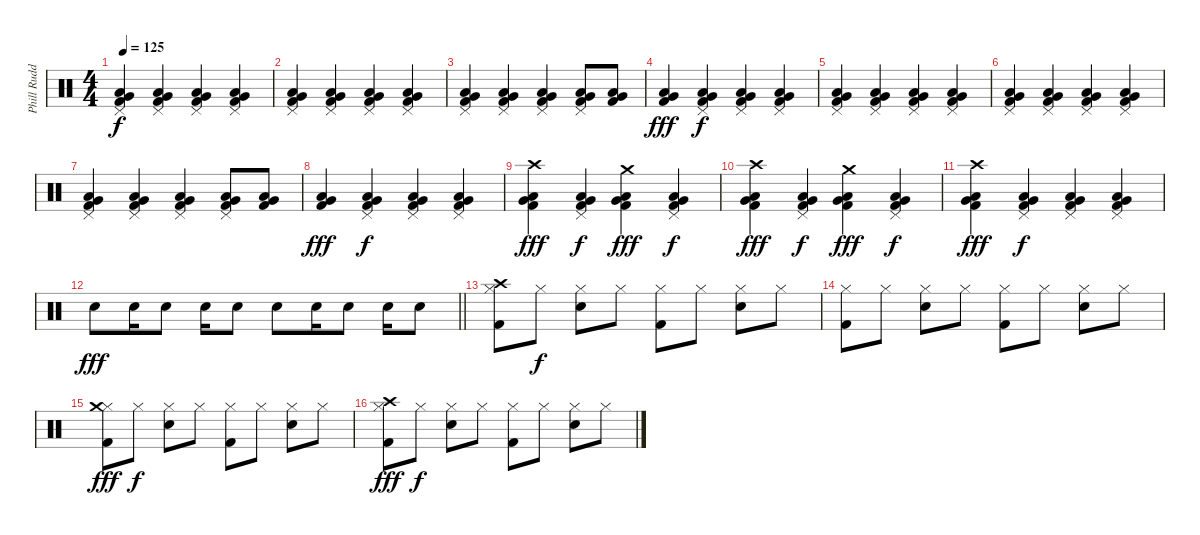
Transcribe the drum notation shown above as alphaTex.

\track ("Phill Rudd" "Phill Rudd") {instrument percussion}
\staff {score}
\articulation defaults
\ts (4 4)
\tempo 125
\clef neutral
\ks c
("Kick (hit) 2" "Very Low Tom (hit)" "Low Floor Tom (hit)" "Pedal Hi-Hat (hit)").4{dy f} ("Kick (hit) 2" "Very Low Tom (hit)" "Low Floor Tom (hit)" "Pedal Hi-Hat (hit)").4 ("Kick (hit) 2" "Very Low Tom (hit)" "Low Floor Tom (hit)" "Pedal Hi-Hat (hit)").4 ("Kick (hit) 2" "Very Low Tom (hit)" "Low Floor Tom (hit)" "Pedal Hi-Hat (hit)").4 |
("Kick (hit) 2" "Very Low Tom (hit)" "Low Floor Tom (hit)" "Pedal Hi-Hat (hit)").4 ("Kick (hit) 2" "Very Low Tom (hit)" "Low Floor Tom (hit)" "Pedal Hi-Hat (hit)").4 ("Kick (hit) 2" "Very Low Tom (hit)" "Low Floor Tom (hit)" "Pedal Hi-Hat (hit)").4 ("Kick (hit) 2" "Very Low Tom (hit)" "Low Floor Tom (hit)" "Pedal Hi-Hat (hit)").4 |
("Kick (hit) 2" "Very Low Tom (hit)" "Low Floor Tom (hit)" "Pedal Hi-Hat (hit)").4 ("Kick (hit) 2" "Very Low Tom (hit)" "Low Floor Tom (hit)" "Pedal Hi-Hat (hit)").4 ("Kick (hit) 2" "Very Low Tom (hit)" "Low Floor Tom (hit)" "Pedal Hi-Hat (hit)").4 ("Kick (hit) 2" "Very Low Tom (hit)" "Low Floor Tom (hit)" "Pedal Hi-Hat (hit)").8 ("Kick (hit) 2" "Very Low Tom (hit)" "Low Floor Tom (hit)").8 |
("Kick (hit) 2" "Very Low Tom (hit)" "Low Floor Tom (hit)").4{dy fff} ("Kick (hit) 2" "Very Low Tom (hit)" "Low Floor Tom (hit)" "Pedal Hi-Hat (hit)").4{dy f} ("Kick (hit) 2" "Very Low Tom (hit)" "Low Floor Tom (hit)" "Pedal Hi-Hat (hit)").4 ("Kick (hit) 2" "Very Low Tom (hit)" "Low Floor Tom (hit)" "Pedal Hi-Hat (hit)").4 |
("Kick (hit) 2" "Very Low Tom (hit)" "Low Floor Tom (hit)" "Pedal Hi-Hat (hit)").4 ("Kick (hit) 2" "Very Low Tom (hit)" "Low Floor Tom (hit)" "Pedal Hi-Hat (hit)").4 ("Kick (hit) 2" "Very Low Tom (hit)" "Low Floor Tom (hit)" "Pedal Hi-Hat (hit)").4 ("Kick (hit) 2" "Very Low Tom (hit)" "Low Floor Tom (hit)" "Pedal Hi-Hat (hit)").4 |
("Kick (hit) 2" "Very Low Tom (hit)" "Low Floor Tom (hit)" "Pedal Hi-Hat (hit)").4 ("Kick (hit) 2" "Very Low Tom (hit)" "Low Floor Tom (hit)" "Pedal Hi-Hat (hit)").4 ("Kick (hit) 2" "Very Low Tom (hit)" "Low Floor Tom (hit)" "Pedal Hi-Hat (hit)").4 ("Kick (hit) 2" "Very Low Tom (hit)" "Low Floor Tom (hit)" "Pedal Hi-Hat (hit)").4 |
("Kick (hit) 2" "Very Low Tom (hit)" "Low Floor Tom (hit)" "Pedal Hi-Hat (hit)").4 ("Kick (hit) 2" "Very Low Tom (hit)" "Low Floor Tom (hit)" "Pedal Hi-Hat (hit)").4 ("Kick (hit) 2" "Very Low Tom (hit)" "Low Floor Tom (hit)" "Pedal Hi-Hat (hit)").4 ("Kick (hit) 2" "Very Low Tom (hit)" "Low Floor Tom (hit)" "Pedal Hi-Hat (hit)").8 ("Kick (hit) 2" "Very Low Tom (hit)" "Low Floor Tom (hit)").8 |
("Kick (hit) 2" "Very Low Tom (hit)" "Low Floor Tom (hit)").4{dy fff} ("Kick (hit) 2" "Very Low Tom (hit)" "Low Floor Tom (hit)" "Pedal Hi-Hat (hit)").4{dy f} ("Kick (hit) 2" "Very Low Tom (hit)" "Low Floor Tom (hit)" "Pedal Hi-Hat (hit)").4 ("Kick (hit) 2" "Very Low Tom (hit)" "Low Floor Tom (hit)" "Pedal Hi-Hat (hit)").4 |
("Kick (hit) 2" "Very Low Tom (hit)" "Low Floor Tom (hit)" "Crash high (hit)").4{dy fff} ("Kick (hit) 2" "Very Low Tom (hit)" "Low Floor Tom (hit)" "Pedal Hi-Hat (hit)").4{dy f} ("Kick (hit) 2" "Very Low Tom (hit)" "Low Floor Tom (hit)" "Crash medium (hit)").4{dy fff} ("Kick (hit) 2" "Very Low Tom (hit)" "Low Floor Tom (hit)" "Pedal Hi-Hat (hit)").4{dy f} |
("Kick (hit) 2" "Very Low Tom (hit)" "Low Floor Tom (hit)" "Crash high (hit)").4{dy fff} ("Kick (hit) 2" "Very Low Tom (hit)" "Low Floor Tom (hit)" "Pedal Hi-Hat (hit)").4{dy f} ("Kick (hit) 2" "Very Low Tom (hit)" "Low Floor Tom (hit)" "Crash medium (hit)").4{dy fff} ("Kick (hit) 2" "Very Low Tom (hit)" "Low Floor Tom (hit)" "Pedal Hi-Hat (hit)").4{dy f} |
("Kick (hit) 2" "Very Low Tom (hit)" "Low Floor Tom (hit)" "Crash high (hit)").4{dy fff} ("Kick (hit) 2" "Very Low Tom (hit)" "Low Floor Tom (hit)" "Pedal Hi-Hat (hit)").4{dy f} ("Kick (hit) 2" "Very Low Tom (hit)" "Low Floor Tom (hit)" "Pedal Hi-Hat (hit)").4 ("Kick (hit) 2" "Very Low Tom (hit)" "Low Floor Tom (hit)" "Pedal Hi-Hat (hit)").4 |
\barLineRight lightlight "Electric Snare (hit)".8{dy fff} "Electric Snare (hit)".16 "Electric Snare (hit)".8 "Electric Snare (hit)".16 "Electric Snare (hit)".8 "Electric Snare (hit)".8 "Electric Snare (hit)".16 "Electric Snare (hit)".8 "Electric Snare (hit)".16 "Electric Snare (hit)".8
|
("Hi-Hat (closed)" "Kick (hit) 2" "Crash high (hit)").8 "Hi-Hat (closed)".8{dy f} ("Hi-Hat (closed)" "Electric Snare (hit)").8 "Hi-Hat (closed)".8 ("Hi-Hat (closed)" "Kick (hit) 2").8 "Hi-Hat (closed)".8 ("Hi-Hat (closed)" "Electric Snare (hit)").8 "Hi-Hat (closed)".8 |
("Hi-Hat (closed)" "Kick (hit) 2").8 "Hi-Hat (closed)".8 ("Hi-Hat (closed)" "Electric Snare (hit)").8 "Hi-Hat (closed)".8 ("Hi-Hat (closed)" "Kick (hit) 2").8 "Hi-Hat (closed)".8 ("Hi-Hat (closed)" "Electric Snare (hit)").8 "Hi-Hat (closed)".8 |
("Hi-Hat (closed)" "Kick (hit) 2" "Crash medium (hit)").8{dy fff} "Hi-Hat (closed)".8{dy f} ("Hi-Hat (closed)" "Electric Snare (hit)").8 "Hi-Hat (closed)".8 ("Hi-Hat (closed)" "Kick (hit) 2").8 "Hi-Hat (closed)".8 ("Hi-Hat (closed)" "Electric Snare (hit)").8 "Hi-Hat (closed)".8 |
("Hi-Hat (closed)" "Kick (hit) 2" "Crash high (hit)").8{dy fff} "Hi-Hat (closed)".8{dy f} ("Hi-Hat (closed)" "Electric Snare (hit)").8 "Hi-Hat (closed)".8 ("Hi-Hat (closed)" "Kick (hit) 2").8 "Hi-Hat (closed)".8 ("Hi-Hat (closed)" "Electric Snare (hit)").8 "Hi-Hat (closed)".8
